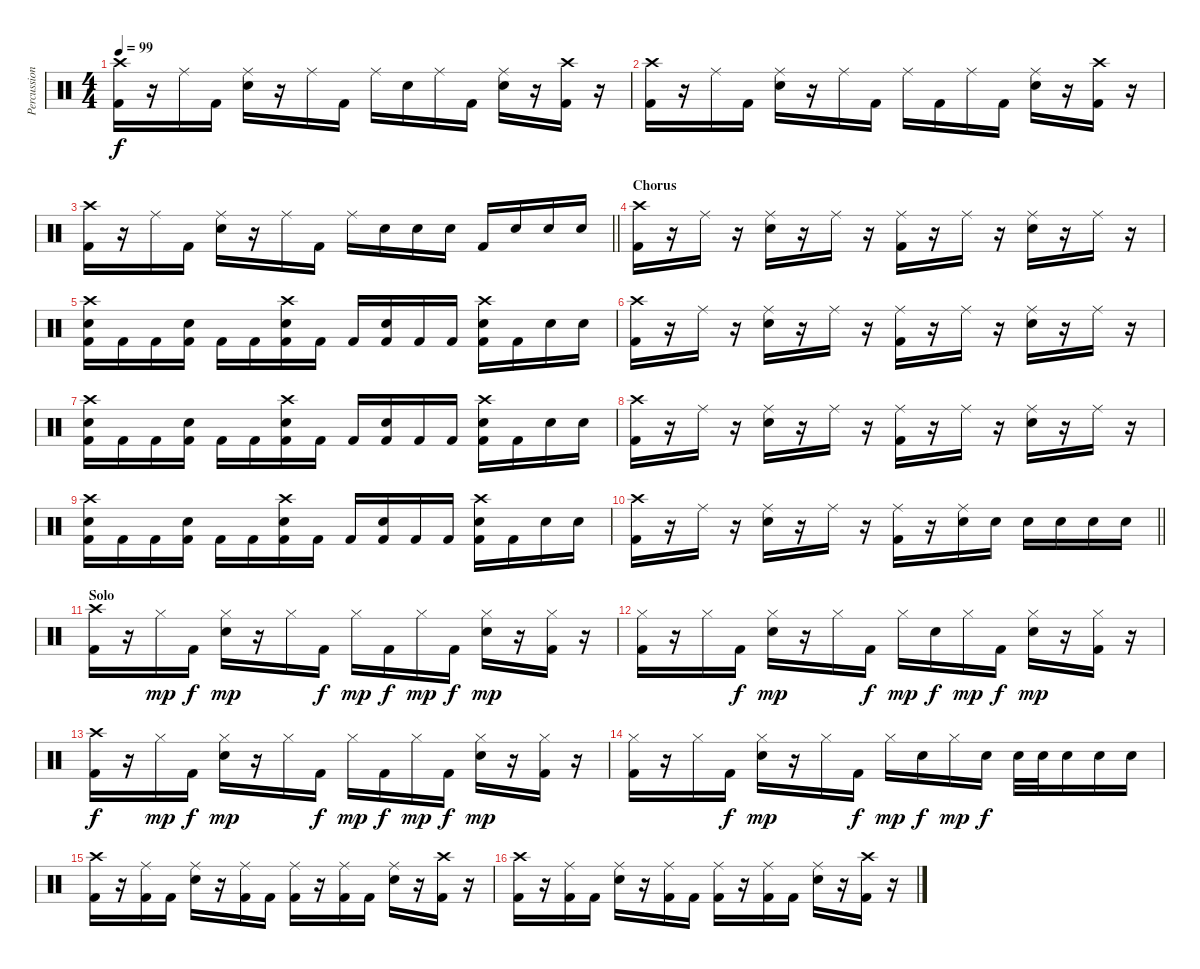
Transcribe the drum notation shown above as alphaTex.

\track ("Percussion" "Percussion") {instrument percussion}
\staff {score}
\articulation defaults
\ts (4 4)
\tempo 99
\clef neutral
\ks c
("Crash high (hit)" "Kick (hit) 2").16{dy f} r.16 "Ride (middle)".16 "Kick (hit) 2".16 ("Ride (middle)" "Snare (hit) 2").16 r.16 "Ride (middle)".16 "Kick (hit) 2".16 "Ride (middle)".16 "Snare (hit) 2".16 "Ride (middle)".16 "Kick (hit) 2".16 ("Ride (middle)" "Snare (hit) 2").16 r.16 ("Crash high (hit)" "Kick (hit) 2").16 r.16 |
("Crash high (hit)" "Kick (hit) 2").16 r.16 "Ride (middle)".16 "Kick (hit) 2".16 ("Ride (middle)" "Snare (hit) 2").16 r.16 "Ride (middle)".16 "Kick (hit) 2".16 "Ride (middle)".16 "Kick (hit) 2".16 "Ride (middle)".16 "Kick (hit) 2".16 ("Ride (middle)" "Snare (hit) 2").16 r.16 ("Crash high (hit)" "Kick (hit) 2").16 r.16 |
\barLineRight lightlight
("Crash high (hit)" "Kick (hit) 2").16 r.16 "Ride (middle)".16 "Kick (hit) 2".16 ("Ride (middle)" "Snare (hit) 2").16 r.16 "Ride (middle)".16 "Kick (hit) 2".16 "Ride (middle)".16 "Snare (hit) 2".16 "Snare (hit) 2".16 "Snare (hit) 2".16 "Kick (hit) 2".16 "Snare (hit) 2".16 "Snare (hit) 2".16 "Snare (hit) 2".16 |
\section ("" "Chorus")
("Crash high (hit)" "Kick (hit) 2").16 r.16 "Ride (middle)".16 r.16 ("Ride (middle)" "Snare (hit) 2").16 r.16 "Ride (middle)".16 r.16 ("Ride (middle)" "Kick (hit) 2").16 r.16 "Ride (middle)".16 r.16 ("Ride (middle)" "Snare (hit) 2").16 r.16 "Ride (middle)".16 r.16 |
("Crash high (hit)" "Snare (hit) 2" "Kick (hit) 2").16 "Kick (hit) 2".16 "Kick (hit) 2".16 ("Snare (hit) 2" "Kick (hit) 2").16 "Kick (hit) 2".16 "Kick (hit) 2".16 ("Crash high (hit)" "Snare (hit) 2" "Kick (hit) 2").16 "Kick (hit) 2".16 "Kick (hit) 2".16 ("Snare (hit) 2" "Kick (hit) 2").16 "Kick (hit) 2".16 "Kick (hit) 2".16 ("Crash high (hit)" "Snare (hit) 2" "Kick (hit) 2").16 "Kick (hit) 2".16 "Snare (hit) 2".16 "Snare (hit) 2".16 |
("Crash high (hit)" "Kick (hit) 2").16 r.16 "Ride (middle)".16 r.16 ("Ride (middle)" "Snare (hit) 2").16 r.16 "Ride (middle)".16 r.16 ("Ride (middle)" "Kick (hit) 2").16 r.16 "Ride (middle)".16 r.16 ("Ride (middle)" "Snare (hit) 2").16 r.16 "Ride (middle)".16 r.16 |
("Crash high (hit)" "Snare (hit) 2" "Kick (hit) 2").16 "Kick (hit) 2".16 "Kick (hit) 2".16 ("Snare (hit) 2" "Kick (hit) 2").16 "Kick (hit) 2".16 "Kick (hit) 2".16 ("Crash high (hit)" "Snare (hit) 2" "Kick (hit) 2").16 "Kick (hit) 2".16 "Kick (hit) 2".16 ("Snare (hit) 2" "Kick (hit) 2").16 "Kick (hit) 2".16 "Kick (hit) 2".16 ("Crash high (hit)" "Snare (hit) 2" "Kick (hit) 2").16 "Kick (hit) 2".16 "Snare (hit) 2".16 "Snare (hit) 2".16 |
("Crash high (hit)" "Kick (hit) 2").16 r.16 "Ride (middle)".16 r.16 ("Ride (middle)" "Snare (hit) 2").16 r.16 "Ride (middle)".16 r.16 ("Ride (middle)" "Kick (hit) 2").16 r.16 "Ride (middle)".16 r.16 ("Ride (middle)" "Snare (hit) 2").16 r.16 "Ride (middle)".16 r.16 |
("Crash high (hit)" "Snare (hit) 2" "Kick (hit) 2").16 "Kick (hit) 2".16 "Kick (hit) 2".16 ("Snare (hit) 2" "Kick (hit) 2").16 "Kick (hit) 2".16 "Kick (hit) 2".16 ("Crash high (hit)" "Snare (hit) 2" "Kick (hit) 2").16 "Kick (hit) 2".16 "Kick (hit) 2".16 ("Snare (hit) 2" "Kick (hit) 2").16 "Kick (hit) 2".16 "Kick (hit) 2".16 ("Crash high (hit)" "Snare (hit) 2" "Kick (hit) 2").16 "Kick (hit) 2".16 "Snare (hit) 2".16 "Snare (hit) 2".16 |
\barLineRight lightlight
("Crash high (hit)" "Kick (hit) 2").16 r.16 "Ride (middle)".16 r.16 ("Ride (middle)" "Snare (hit) 2").16 r.16 "Ride (middle)".16 r.16 ("Ride (middle)" "Kick (hit) 2").16 r.16 ("Ride (middle)" "Snare (hit) 2").16 "Snare (hit) 2".16 "Snare (hit) 2".16 "Snare (hit) 2".16 "Snare (hit) 2".16 "Snare (hit) 2".16 |
\section ("" "Solo")
("Crash high (hit)" "Kick (hit) 2").16{volume 9} r.16 "Hi-Hat (closed)".16{dy mp} "Kick (hit) 2".16{dy f} ("Hi-Hat (closed)" "Snare (hit) 2").16{dy mp} r.16 "Hi-Hat (closed)".16 "Kick (hit) 2".16{dy f} "Hi-Hat (closed)".16{dy mp} "Kick (hit) 2".16{dy f} "Hi-Hat (closed)".16{dy mp} "Kick (hit) 2".16{dy f} ("Hi-Hat (closed)" "Snare (hit) 2").16{dy mp} r.16 ("Hi-Hat (closed)" "Kick (hit) 2").16 r.16 |
("Hi-Hat (closed)" "Kick (hit) 2").16 r.16 "Hi-Hat (closed)".16 "Kick (hit) 2".16{dy f} ("Hi-Hat (closed)" "Snare (hit) 2").16{dy mp} r.16 "Hi-Hat (closed)".16 "Kick (hit) 2".16{dy f} "Hi-Hat (closed)".16{dy mp} "Snare (hit) 2".16{dy f} "Hi-Hat (closed)".16{dy mp} "Kick (hit) 2".16{dy f} ("Hi-Hat (closed)" "Snare (hit) 2").16{dy mp} r.16 ("Hi-Hat (closed)" "Kick (hit) 2").16 r.16 |
("Crash high (hit)" "Kick (hit) 2").16{dy f} r.16 "Hi-Hat (closed)".16{dy mp} "Kick (hit) 2".16{dy f} ("Hi-Hat (closed)" "Snare (hit) 2").16{dy mp} r.16 "Hi-Hat (closed)".16 "Kick (hit) 2".16{dy f} "Hi-Hat (closed)".16{dy mp} "Kick (hit) 2".16{dy f} "Hi-Hat (closed)".16{dy mp} "Kick (hit) 2".16{dy f} ("Hi-Hat (closed)" "Snare (hit) 2").16{dy mp} r.16 ("Hi-Hat (closed)" "Kick (hit) 2").16 r.16 |
("Hi-Hat (closed)" "Kick (hit) 2").16 r.16 "Hi-Hat (closed)".16 "Kick (hit) 2".16{dy f} ("Hi-Hat (closed)" "Snare (hit) 2").16{dy mp} r.16 "Hi-Hat (closed)".16 "Kick (hit) 2".16{dy f} "Hi-Hat (closed)".16{dy mp} "Snare (hit) 2".16{dy f} "Hi-Hat (closed)".16{dy mp} "Snare (hit) 2".16{dy f} "Snare (hit) 2".32 "Snare (hit) 2".32 "Snare (hit) 2".16 "Snare (hit) 2".16 "Snare (hit) 2".16 |
("Crash high (hit)" "Kick (hit) 2").16 r.16 ("Ride (middle)" "Kick (hit) 2").16 "Kick (hit) 2".16 ("Ride (middle)" "Snare (hit) 2").16 r.16 ("Ride (middle)" "Kick (hit) 2").16 "Kick (hit) 2".16 ("Ride (middle)" "Kick (hit) 2").16 r.16 ("Ride (middle)" "Kick (hit) 2").16 "Kick (hit) 2".16 ("Ride (middle)" "Snare (hit) 2").16 r.16 ("Crash high (hit)" "Kick (hit) 2").16 r.16 |
("Crash high (hit)" "Kick (hit) 2").16 r.16 ("Ride (middle)" "Kick (hit) 2").16 "Kick (hit) 2".16 ("Ride (middle)" "Snare (hit) 2").16 r.16 ("Ride (middle)" "Kick (hit) 2").16 "Kick (hit) 2".16 ("Ride (middle)" "Kick (hit) 2").16 r.16 ("Ride (middle)" "Kick (hit) 2").16 "Kick (hit) 2".16 ("Ride (middle)" "Snare (hit) 2").16 r.16 ("Crash high (hit)" "Kick (hit) 2").16 r.16
